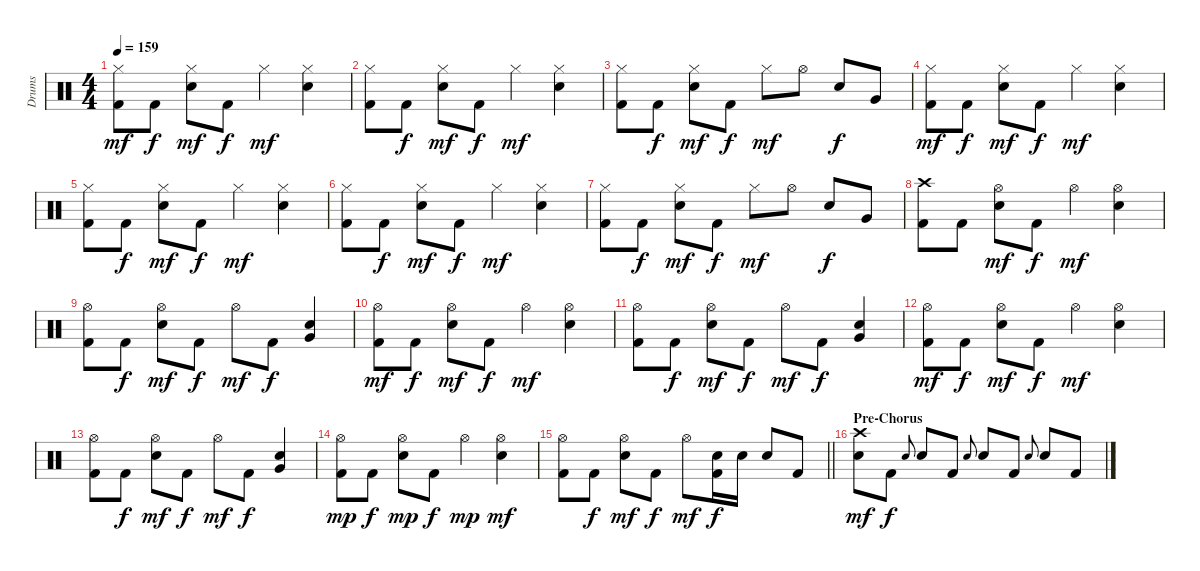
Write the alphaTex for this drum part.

\track ("Drums" "Drums") {instrument percussion}
\staff {score}
\articulation defaults
\ts (4 4)
\tempo 159
\clef neutral
\ks c
("Hi-Hat (closed)" "Kick (hit) 2").8{dy mf} "Kick (hit) 2".8{dy f} ("Hi-Hat (closed)" "Electric Snare (hit)").8{dy mf} "Kick (hit) 2".8{dy f} "Hi-Hat (closed)".4{dy mf} ("Hi-Hat (closed)" "Electric Snare (hit)").4 |
("Hi-Hat (closed)" "Kick (hit) 2").8 "Kick (hit) 2".8{dy f} ("Hi-Hat (closed)" "Electric Snare (hit)").8{dy mf} "Kick (hit) 2".8{dy f} "Hi-Hat (closed)".4{dy mf} ("Hi-Hat (closed)" "Electric Snare (hit)").4 |
("Hi-Hat (closed)" "Kick (hit) 2").8 "Kick (hit) 2".8{dy f} ("Hi-Hat (closed)" "Electric Snare (hit)").8{dy mf} "Kick (hit) 2".8{dy f} "Hi-Hat (closed)".8{dy mf} "Hi-Hat (open)".8 "Electric Snare (hit)".8{dy f} "Very Low Tom (hit)".8 |
("Hi-Hat (closed)" "Kick (hit) 2").8{dy mf} "Kick (hit) 2".8{dy f} ("Hi-Hat (closed)" "Electric Snare (hit)").8{dy mf} "Kick (hit) 2".8{dy f} "Hi-Hat (closed)".4{dy mf} ("Hi-Hat (closed)" "Electric Snare (hit)").4 |
("Hi-Hat (closed)" "Kick (hit) 2").8 "Kick (hit) 2".8{dy f} ("Hi-Hat (closed)" "Electric Snare (hit)").8{dy mf} "Kick (hit) 2".8{dy f} "Hi-Hat (closed)".4{dy mf} ("Hi-Hat (closed)" "Electric Snare (hit)").4 |
("Hi-Hat (closed)" "Kick (hit) 2").8 "Kick (hit) 2".8{dy f} ("Hi-Hat (closed)" "Electric Snare (hit)").8{dy mf} "Kick (hit) 2".8{dy f} "Hi-Hat (closed)".4{dy mf} ("Hi-Hat (closed)" "Electric Snare (hit)").4 |
("Hi-Hat (closed)" "Kick (hit) 2").8 "Kick (hit) 2".8{dy f} ("Hi-Hat (closed)" "Electric Snare (hit)").8{dy mf} "Kick (hit) 2".8{dy f} "Hi-Hat (closed)".8{dy mf} "Hi-Hat (open)".8 "Electric Snare (hit)".8{dy f} "Very Low Tom (hit)".8 |
("Crash high (hit)" "Kick (hit) 2").8 "Kick (hit) 2".8 ("Hi-Hat (open)" "Electric Snare (hit)").8{dy mf} "Kick (hit) 2".8{dy f} "Hi-Hat (open)".4{dy mf} ("Hi-Hat (open)" "Electric Snare (hit)").4 |
("Hi-Hat (open)" "Kick (hit) 2").8 "Kick (hit) 2".8{dy f} ("Hi-Hat (open)" "Electric Snare (hit)").8{dy mf} "Kick (hit) 2".8{dy f} "Hi-Hat (open)".8{dy mf} "Kick (hit) 2".8{dy f} ("Electric Snare (hit)" "Very Low Tom (hit)").4 |
("Hi-Hat (open)" "Kick (hit) 2").8{dy mf} "Kick (hit) 2".8{dy f} ("Hi-Hat (open)" "Electric Snare (hit)").8{dy mf} "Kick (hit) 2".8{dy f} "Hi-Hat (open)".4{dy mf} ("Hi-Hat (open)" "Electric Snare (hit)").4 |
("Hi-Hat (open)" "Kick (hit) 2").8 "Kick (hit) 2".8{dy f} ("Hi-Hat (open)" "Electric Snare (hit)").8{dy mf} "Kick (hit) 2".8{dy f} "Hi-Hat (open)".8{dy mf} "Kick (hit) 2".8{dy f} ("Electric Snare (hit)" "Very Low Tom (hit)").4 |
("Hi-Hat (open)" "Kick (hit) 2").8{dy mf} "Kick (hit) 2".8{dy f} ("Hi-Hat (open)" "Electric Snare (hit)").8{dy mf} "Kick (hit) 2".8{dy f} "Hi-Hat (open)".4{dy mf} ("Hi-Hat (open)" "Electric Snare (hit)").4 |
("Hi-Hat (open)" "Kick (hit) 2").8 "Kick (hit) 2".8{dy f} ("Hi-Hat (open)" "Electric Snare (hit)").8{dy mf} "Kick (hit) 2".8{dy f} "Hi-Hat (open)".8{dy mf} "Kick (hit) 2".8{dy f} ("Electric Snare (hit)" "Very Low Tom (hit)").4 |
("Hi-Hat (open)" "Kick (hit) 2").8{dy mp} "Kick (hit) 2".8{dy f} ("Hi-Hat (open)" "Electric Snare (hit)").8{dy mp} "Kick (hit) 2".8{dy f} "Hi-Hat (open)".4{dy mp} ("Hi-Hat (open)" "Electric Snare (hit)").4{dy mf} |
\barLineRight lightlight
("Hi-Hat (open)" "Kick (hit) 2").8 "Kick (hit) 2".8{dy f} ("Hi-Hat (open)" "Electric Snare (hit)").8{dy mf} "Kick (hit) 2".8{dy f} "Hi-Hat (open)".8{dy mf} ("Electric Snare (hit)" "Kick (hit) 2").16{dy f} "Electric Snare (hit)".16 "Electric Snare (hit)".8 "Kick (hit) 2".8 |
\section ("" "Pre-Chorus")
("Crash high (hit)" "Electric Snare (hit)").8{dy mf} "Kick (hit) 2".8{dy f} "Electric Snare (hit)".8{gr onbeat} "Electric Snare (hit)".8 "Kick (hit) 2".8 "Electric Snare (hit)".8{gr onbeat} "Electric Snare (hit)".8 "Kick (hit) 2".8 "Electric Snare (hit)".8{gr onbeat} "Electric Snare (hit)".8 "Kick (hit) 2".8
